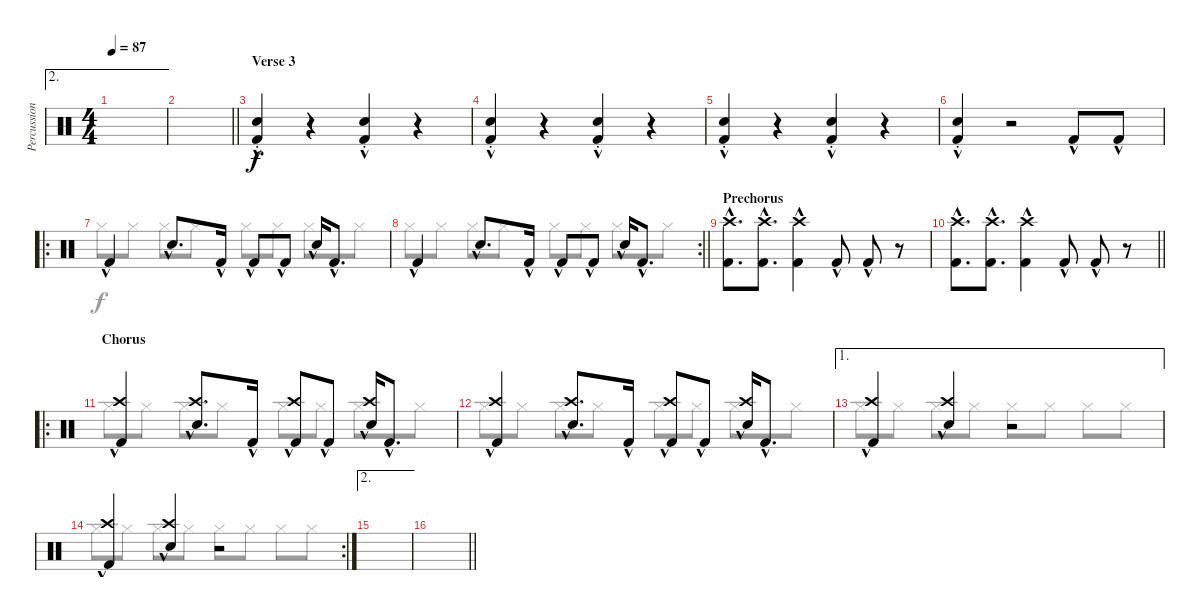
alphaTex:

\track ("Percussion" "Percussion") {instrument percussion}
\staff {score}
\articulation defaults
\voice
\ae 2
\ts (4 4)
\tempo 87
\clef neutral
\ks c
|
\barLineRight lightlight
|
\section ("" "Verse 3")
("Snare (hit) 2"{hac st} "Kick (hit) 2"{hac st}).4 r.4 ("Snare (hit) 2"{hac st} "Kick (hit) 2"{hac st}).4 r.4 |
("Snare (hit) 2"{hac st} "Kick (hit) 2"{hac st}).4 r.4 ("Snare (hit) 2"{hac st} "Kick (hit) 2"{hac st}).4 r.4 |
("Snare (hit) 2"{hac st} "Kick (hit) 2"{hac st}).4 r.4 ("Snare (hit) 2"{hac st} "Kick (hit) 2"{hac st}).4 r.4 |
("Snare (hit) 2"{hac st} "Kick (hit) 2"{hac st}).4 r.2 "Kick (hit) 2"{hac}.8 "Kick (hit) 2"{hac}.8 |
\ro "Kick (hit) 2"{hac}.4 "Snare (hit) 2"{hac}.8{d} "Kick (hit) 2"{hac}.16 "Kick (hit) 2"{hac}.8 "Kick (hit) 2"{hac}.8 "Snare (hit) 2"{hac}.16 "Kick (hit) 2"{hac}.8{d}
|
\rc 2
\barLineRight lightlight "Kick (hit) 2"{hac}.4 "Snare (hit) 2"{hac}.8{d} "Kick (hit) 2"{hac}.16 "Kick (hit) 2"{hac}.8 "Kick (hit) 2"{hac}.8 "Snare (hit) 2"{hac}.16 "Kick (hit) 2"{hac}.8{d}
|
\section ("" "Prechorus")
("Crash high (hit)" "Kick (hit) 2"{hac}).8{d} ("Crash high (hit)" "Kick (hit) 2"{hac}).8{d} ("Crash high (hit)" "Kick (hit) 2"{hac}).4 "Kick (hit) 2"{hac}.8 "Kick (hit) 2"{hac}.8 r.8 |
\barLineRight lightlight
("Crash high (hit)" "Kick (hit) 2"{hac}).8{d} ("Crash high (hit)" "Kick (hit) 2"{hac}).8{d} ("Crash high (hit)" "Kick (hit) 2"{hac}).4 "Kick (hit) 2"{hac}.8 "Kick (hit) 2"{hac}.8 r.8 |
\ro
\section ("" "Chorus")
("Crash high (hit)" "Kick (hit) 2"{hac}).4 ("Crash high (hit)" "Snare (hit) 2"{hac}).8{d} "Kick (hit) 2"{hac}.16 ("Crash high (hit)" "Kick (hit) 2"{hac}).8 "Kick (hit) 2"{hac}.8 ("Crash high (hit)" "Snare (hit) 2"{hac}).16 "Kick (hit) 2"{hac}.8{d} |
("Crash high (hit)" "Kick (hit) 2"{hac}).4 ("Crash high (hit)" "Snare (hit) 2"{hac}).8{d} "Kick (hit) 2"{hac}.16 ("Crash high (hit)" "Kick (hit) 2"{hac}).8 "Kick (hit) 2"{hac}.8 ("Crash high (hit)" "Snare (hit) 2"{hac}).16 "Kick (hit) 2"{hac}.8{d} |
\ae 1
("Crash high (hit)" "Kick (hit) 2"{hac}).4 ("Crash high (hit)" "Snare (hit) 2"{hac}).4 r.2 |
\rc 2
("Crash high (hit)" "Kick (hit) 2"{hac}).4 ("Crash high (hit)" "Snare (hit) 2"{hac}).4 r.2 |
\ae 2
|
\barLineRight lightlight
\voice
\clef neutral
\ottava regular
\simile none
\ks c
|
\barLineRight lightlight
|
|
|
|
|
"Hi-Hat (closed)".8 "Hi-Hat (closed)".8 "Hi-Hat (closed)".8 "Hi-Hat (closed)".8 "Hi-Hat (closed)".8 "Hi-Hat (closed)".8 "Hi-Hat (closed)".8 "Hi-Hat (closed)".8 |
\barLineRight lightlight "Hi-Hat (closed)".8 "Hi-Hat (closed)".8 "Hi-Hat (closed)".8 "Hi-Hat (closed)".8 "Hi-Hat (closed)".8 "Hi-Hat (closed)".8 "Hi-Hat (closed)".8 "Hi-Hat (closed)".8
|
|
\barLineRight lightlight
|
"Hi-Hat (closed)".8 "Hi-Hat (closed)".8 "Hi-Hat (closed)".8 "Hi-Hat (closed)".8 "Hi-Hat (closed)".8 "Hi-Hat (closed)".8 "Hi-Hat (closed)".8 "Hi-Hat (closed)".8 |
"Hi-Hat (closed)".8 "Hi-Hat (closed)".8 "Hi-Hat (closed)".8 "Hi-Hat (closed)".8 "Hi-Hat (closed)".8 "Hi-Hat (closed)".8 "Hi-Hat (closed)".8 "Hi-Hat (closed)".8 |
"Hi-Hat (closed)".8 "Hi-Hat (closed)".8 "Hi-Hat (closed)".8 "Hi-Hat (closed)".8 "Hi-Hat (closed)".8 "Hi-Hat (closed)".8 "Hi-Hat (closed)".8 "Hi-Hat (closed)".8 |
"Hi-Hat (closed)".8 "Hi-Hat (closed)".8 "Hi-Hat (closed)".8 "Hi-Hat (closed)".8 "Hi-Hat (closed)".8 "Hi-Hat (closed)".8 "Hi-Hat (closed)".8 "Hi-Hat (closed)".8 |
|
\barLineRight lightlight
